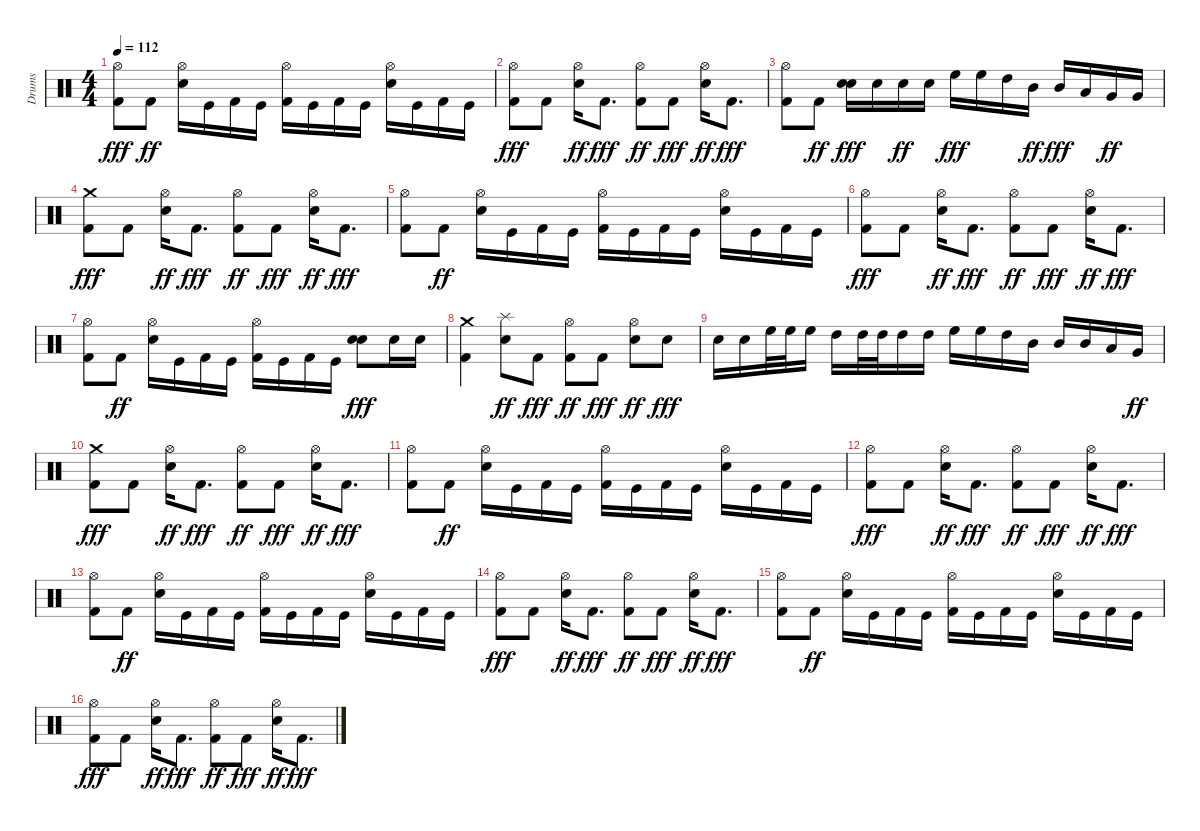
\track ("Drums" "Drums") {instrument percussion}
\staff {score}
\articulation defaults
\ts (4 4)
\tempo 112
\clef neutral
\ks c
("Kick (hit) 2" "Hi-Hat (open)").8{dy fff} "Kick (hit) 2".8{dy ff} ("Snare (hit) 2" "Hi-Hat (open)").16 "Kick (hit)".16 "Kick (hit) 2".16 "Kick (hit)".16 ("Kick (hit) 2" "Hi-Hat (open)").16 "Kick (hit)".16 "Kick (hit) 2".16 "Kick (hit)".16 ("Snare (hit) 2" "Hi-Hat (open)").16 "Kick (hit)".16 "Kick (hit) 2".16 "Kick (hit)".16 |
("Kick (hit) 2" "Hi-Hat (open)").8{dy fff} "Kick (hit) 2".8 ("Snare (hit) 2" "Hi-Hat (open)").16{dy ff} "Kick (hit) 2".8{d dy fff} ("Kick (hit) 2" "Hi-Hat (open)").8{dy ff} "Kick (hit) 2".8{dy fff} ("Snare (hit) 2" "Hi-Hat (open)").16{dy ff} "Kick (hit) 2".8{d dy fff} |
("Kick (hit) 2" "Hi-Hat (open)").8 "Kick (hit) 2".8{dy ff} ("Snare (hit) 2" "Electric Snare (hit)").16{dy fff} "Snare (hit) 2".16 "Snare (hit) 2".16{dy ff} "Electric Snare (hit)".16 "High Floor Tom (hit)".16{dy fff} "High Floor Tom (hit)".16 "High Tom (hit)".16 "Mid Tom (hit)".16{dy ff} "Mid Tom (hit)".16{dy fff} "Low Tom (hit)".16 "Very Low Tom (hit)".16{dy ff} "Very Low Tom (hit)".16 |
("Kick (hit) 2" "Crash medium (hit)").8{dy fff} "Kick (hit) 2".8 ("Snare (hit) 2" "Hi-Hat (open)").16{dy ff} "Kick (hit) 2".8{d dy fff} ("Kick (hit) 2" "Hi-Hat (open)").8{dy ff} "Kick (hit) 2".8{dy fff} ("Snare (hit) 2" "Hi-Hat (open)").16{dy ff} "Kick (hit) 2".8{d dy fff} |
("Kick (hit) 2" "Hi-Hat (open)").8 "Kick (hit) 2".8{dy ff} ("Snare (hit) 2" "Hi-Hat (open)").16 "Kick (hit)".16 "Kick (hit) 2".16 "Kick (hit)".16 ("Kick (hit) 2" "Hi-Hat (open)").16 "Kick (hit)".16 "Kick (hit) 2".16 "Kick (hit)".16 ("Snare (hit) 2" "Hi-Hat (open)").16 "Kick (hit)".16 "Kick (hit) 2".16 "Kick (hit)".16 |
("Kick (hit) 2" "Hi-Hat (open)").8{dy fff} "Kick (hit) 2".8 ("Snare (hit) 2" "Hi-Hat (open)").16{dy ff} "Kick (hit) 2".8{d dy fff} ("Kick (hit) 2" "Hi-Hat (open)").8{dy ff} "Kick (hit) 2".8{dy fff} ("Snare (hit) 2" "Hi-Hat (open)").16{dy ff} "Kick (hit) 2".8{d dy fff} |
("Kick (hit) 2" "Hi-Hat (open)").8 "Kick (hit) 2".8{dy ff} ("Snare (hit) 2" "Hi-Hat (open)").16 "Kick (hit)".16 "Kick (hit) 2".16 "Kick (hit)".16 ("Kick (hit) 2" "Hi-Hat (open)").16 "Kick (hit)".16 "Kick (hit) 2".16 "Kick (hit)".16 ("Snare (hit) 2" "Snare (hit) 2").8{dy fff} "Snare (hit) 2".16 "Snare (hit) 2".16 |
("Kick (hit) 2" "Crash medium (hit)").4 ("Snare (hit) 2" "Splash (hit)").8{dy ff} "Kick (hit) 2".8{dy fff} ("Kick (hit) 2" "Hi-Hat (open)").8{dy ff} "Kick (hit) 2".8{dy fff} ("Snare (hit) 2" "Hi-Hat (open)").8{dy ff} "Snare (hit) 2".8{dy fff} |
"Snare (hit) 2".16 "Snare (hit) 2".16 "High Floor Tom (hit)".32 "High Floor Tom (hit)".32 "High Floor Tom (hit)".16 "High Tom (hit)".16 "High Tom (hit)".32 "High Tom (hit)".32 "High Tom (hit)".16 "High Tom (hit)".16 "High Floor Tom (hit)".16 "High Floor Tom (hit)".16 "High Tom (hit)".16 "Mid Tom (hit)".16 "Mid Tom (hit)".16 "Mid Tom (hit)".16 "Low Tom (hit)".16 "Very Low Tom (hit)".16{dy ff} |
("Kick (hit) 2" "Crash medium (hit)").8{dy fff} "Kick (hit) 2".8 ("Snare (hit) 2" "Hi-Hat (open)").16{dy ff} "Kick (hit) 2".8{d dy fff} ("Kick (hit) 2" "Hi-Hat (open)").8{dy ff} "Kick (hit) 2".8{dy fff} ("Snare (hit) 2" "Hi-Hat (open)").16{dy ff} "Kick (hit) 2".8{d dy fff} |
("Kick (hit) 2" "Hi-Hat (open)").8 "Kick (hit) 2".8{dy ff} ("Snare (hit) 2" "Hi-Hat (open)").16 "Kick (hit)".16 "Kick (hit) 2".16 "Kick (hit)".16 ("Kick (hit) 2" "Hi-Hat (open)").16 "Kick (hit)".16 "Kick (hit) 2".16 "Kick (hit)".16 ("Snare (hit) 2" "Hi-Hat (open)").16 "Kick (hit)".16 "Kick (hit) 2".16 "Kick (hit)".16 |
("Kick (hit) 2" "Hi-Hat (open)").8{dy fff} "Kick (hit) 2".8 ("Snare (hit) 2" "Hi-Hat (open)").16{dy ff} "Kick (hit) 2".8{d dy fff} ("Kick (hit) 2" "Hi-Hat (open)").8{dy ff} "Kick (hit) 2".8{dy fff} ("Snare (hit) 2" "Hi-Hat (open)").16{dy ff} "Kick (hit) 2".8{d dy fff} |
("Kick (hit) 2" "Hi-Hat (open)").8 "Kick (hit) 2".8{dy ff} ("Snare (hit) 2" "Hi-Hat (open)").16 "Kick (hit)".16 "Kick (hit) 2".16 "Kick (hit)".16 ("Kick (hit) 2" "Hi-Hat (open)").16 "Kick (hit)".16 "Kick (hit) 2".16 "Kick (hit)".16 ("Snare (hit) 2" "Hi-Hat (open)").16 "Kick (hit)".16 "Kick (hit) 2".16 "Kick (hit)".16 |
("Kick (hit) 2" "Hi-Hat (open)").8{dy fff} "Kick (hit) 2".8 ("Snare (hit) 2" "Hi-Hat (open)").16{dy ff} "Kick (hit) 2".8{d dy fff} ("Kick (hit) 2" "Hi-Hat (open)").8{dy ff} "Kick (hit) 2".8{dy fff} ("Snare (hit) 2" "Hi-Hat (open)").16{dy ff} "Kick (hit) 2".8{d dy fff} |
("Kick (hit) 2" "Hi-Hat (open)").8 "Kick (hit) 2".8{dy ff} ("Snare (hit) 2" "Hi-Hat (open)").16 "Kick (hit)".16 "Kick (hit) 2".16 "Kick (hit)".16 ("Kick (hit) 2" "Hi-Hat (open)").16 "Kick (hit)".16 "Kick (hit) 2".16 "Kick (hit)".16 ("Snare (hit) 2" "Hi-Hat (open)").16 "Kick (hit)".16 "Kick (hit) 2".16 "Kick (hit)".16 |
("Kick (hit) 2" "Hi-Hat (open)").8{dy fff} "Kick (hit) 2".8 ("Snare (hit) 2" "Hi-Hat (open)").16{dy ff} "Kick (hit) 2".8{d dy fff} ("Kick (hit) 2" "Hi-Hat (open)").8{dy ff} "Kick (hit) 2".8{dy fff} ("Snare (hit) 2" "Hi-Hat (open)").16{dy ff} "Kick (hit) 2".8{d dy fff}
